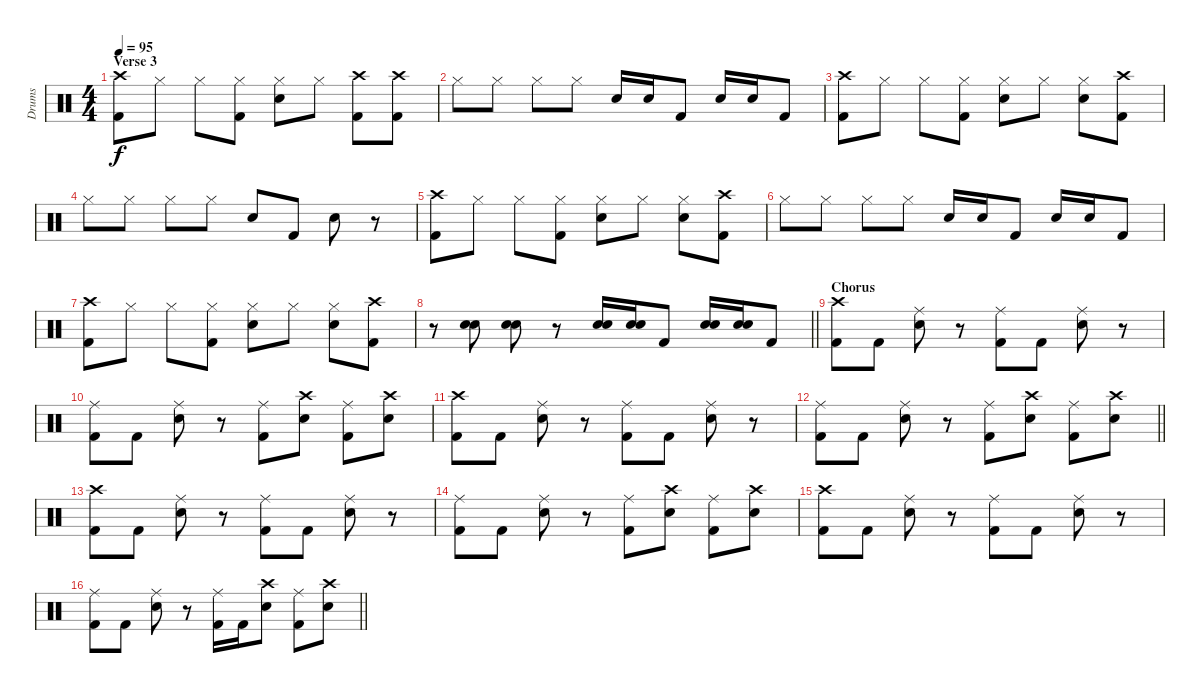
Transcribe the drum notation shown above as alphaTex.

\track ("Drums" "Drums") {instrument percussion}
\staff {score}
\articulation defaults
\ts (4 4)
\section ("" "Verse 3")
\tempo 95
\clef neutral
\ks c
("Crash high (hit)" "Kick (hit) 2").8{dy f} "Hi-Hat (closed)".8 "Hi-Hat (closed)".8 ("Hi-Hat (closed)" "Kick (hit) 2").8 ("Hi-Hat (closed)" "Snare (hit) 2").8 "Hi-Hat (closed)".8 ("Crash high (hit)" "Kick (hit) 2").8 ("Crash high (hit)" "Kick (hit) 2").8 |
"Hi-Hat (closed)".8 "Hi-Hat (closed)".8 "Hi-Hat (closed)".8 "Hi-Hat (closed)".8 "Snare (hit) 2".16 "Snare (hit) 2".16 "Kick (hit) 2".8 "Snare (hit) 2".16 "Snare (hit) 2".16 "Kick (hit) 2".8 |
("Crash high (hit)" "Kick (hit) 2").8 "Hi-Hat (closed)".8 "Hi-Hat (closed)".8 ("Hi-Hat (closed)" "Kick (hit) 2").8 ("Hi-Hat (closed)" "Snare (hit) 2").8 "Hi-Hat (closed)".8 ("Hi-Hat (closed)" "Snare (hit) 2").8 ("Crash high (hit)" "Kick (hit) 2").8 |
"Hi-Hat (closed)".8 "Hi-Hat (closed)".8 "Hi-Hat (closed)".8 "Hi-Hat (closed)".8 "Snare (hit) 2".8 "Kick (hit) 2".8 "Snare (hit) 2".8 r.8 |
("Crash high (hit)" "Kick (hit) 2").8 "Hi-Hat (closed)".8 "Hi-Hat (closed)".8 ("Hi-Hat (closed)" "Kick (hit) 2").8 ("Hi-Hat (closed)" "Snare (hit) 2").8 "Hi-Hat (closed)".8 ("Hi-Hat (closed)" "Snare (hit) 2").8 ("Crash high (hit)" "Kick (hit) 2").8 |
"Hi-Hat (closed)".8 "Hi-Hat (closed)".8 "Hi-Hat (closed)".8 "Hi-Hat (closed)".8 "Snare (hit) 2".16 "Snare (hit) 2".16 "Kick (hit) 2".8 "Snare (hit) 2".16 "Snare (hit) 2".16 "Kick (hit) 2".8 |
("Crash high (hit)" "Kick (hit) 2").8 "Hi-Hat (closed)".8 "Hi-Hat (closed)".8 ("Hi-Hat (closed)" "Kick (hit) 2").8 ("Hi-Hat (closed)" "Snare (hit) 2").8 "Hi-Hat (closed)".8 ("Hi-Hat (closed)" "Snare (hit) 2").8 ("Crash high (hit)" "Kick (hit) 2").8 |
\barLineRight lightlight
r.8 ("Snare (hit) 2" "Snare (hit) 2").8 ("Snare (hit) 2" "Snare (hit) 2").8 r.8 ("Snare (hit) 2" "Snare (hit) 2").16 ("Snare (hit) 2" "Snare (hit) 2").16 "Kick (hit) 2".8 ("Snare (hit) 2" "Snare (hit) 2").16 ("Snare (hit) 2" "Snare (hit) 2").16 "Kick (hit) 2".8 |
\section ("" "Chorus")
("Crash high (hit)" "Kick (hit) 2").8 "Kick (hit) 2".8 ("Ride (middle)" "Snare (hit) 2").8 r.8 ("Ride (middle)" "Kick (hit) 2").8 "Kick (hit) 2".8 ("Ride (middle)" "Snare (hit) 2").8 r.8 |
("Ride (middle)" "Kick (hit) 2").8 "Kick (hit) 2".8 ("Ride (middle)" "Snare (hit) 2").8 r.8 ("Ride (middle)" "Kick (hit) 2").8 ("Crash high (hit)" "Snare (hit) 2").8 ("Ride (middle)" "Kick (hit) 2").8 ("Crash high (hit)" "Snare (hit) 2").8 |
("Crash high (hit)" "Kick (hit) 2").8 "Kick (hit) 2".8 ("Ride (middle)" "Snare (hit) 2").8 r.8 ("Ride (middle)" "Kick (hit) 2").8 "Kick (hit) 2".8 ("Ride (middle)" "Snare (hit) 2").8 r.8 |
\barLineRight lightlight
("Ride (middle)" "Kick (hit) 2").8 "Kick (hit) 2".8 ("Ride (middle)" "Snare (hit) 2").8 r.8 ("Ride (middle)" "Kick (hit) 2").8 ("Crash high (hit)" "Snare (hit) 2").8 ("Ride (middle)" "Kick (hit) 2").8 ("Crash high (hit)" "Snare (hit) 2").8 |
("Crash high (hit)" "Kick (hit) 2").8 "Kick (hit) 2".8 ("Ride (middle)" "Snare (hit) 2").8 r.8 ("Ride (middle)" "Kick (hit) 2").8 "Kick (hit) 2".8 ("Ride (middle)" "Snare (hit) 2").8 r.8 |
("Ride (middle)" "Kick (hit) 2").8 "Kick (hit) 2".8 ("Ride (middle)" "Snare (hit) 2").8 r.8 ("Ride (middle)" "Kick (hit) 2").8 ("Crash high (hit)" "Snare (hit) 2").8 ("Ride (middle)" "Kick (hit) 2").8 ("Crash high (hit)" "Snare (hit) 2").8 |
("Crash high (hit)" "Kick (hit) 2").8 "Kick (hit) 2".8 ("Ride (middle)" "Snare (hit) 2").8 r.8 ("Ride (middle)" "Kick (hit) 2").8 "Kick (hit) 2".8 ("Ride (middle)" "Snare (hit) 2").8 r.8 |
\barLineRight lightlight
("Ride (middle)" "Kick (hit) 2").8 "Kick (hit) 2".8 ("Ride (middle)" "Snare (hit) 2").8 r.8 ("Ride (middle)" "Kick (hit) 2").16 "Kick (hit) 2".16 ("Crash high (hit)" "Snare (hit) 2").8 ("Ride (middle)" "Kick (hit) 2").8 ("Crash high (hit)" "Snare (hit) 2").8
